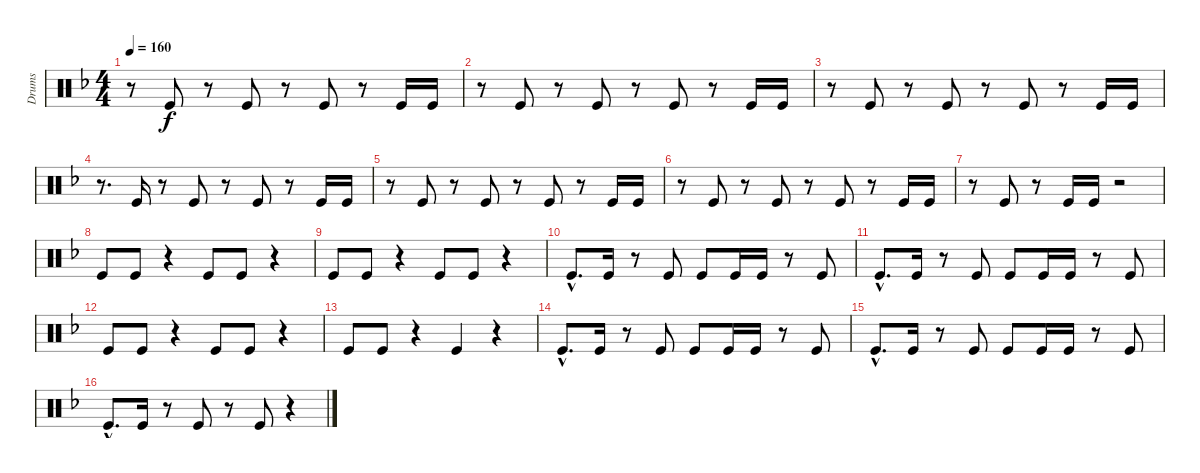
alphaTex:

\track ("Drums" "Drums") {instrument percussion}
\staff {score}
\articulation defaults
\ts (4 4)
\tempo 160
\clef neutral
\ks f
r.8{dy f} "Kick (hit)".8 r.8 "Kick (hit)".8 r.8 "Kick (hit)".8 r.8 "Kick (hit)".16 "Kick (hit)".16 |
r.8 "Kick (hit)".8 r.8 "Kick (hit)".8 r.8 "Kick (hit)".8 r.8 "Kick (hit)".16 "Kick (hit)".16 |
r.8 "Kick (hit)".8 r.8 "Kick (hit)".8 r.8 "Kick (hit)".8 r.8 "Kick (hit)".16 "Kick (hit)".16 |
r.8{d} "Kick (hit)".16 r.8 "Kick (hit)".8 r.8 "Kick (hit)".8 r.8 "Kick (hit)".16 "Kick (hit)".16 |
r.8 "Kick (hit)".8 r.8 "Kick (hit)".8 r.8 "Kick (hit)".8 r.8 "Kick (hit)".16 "Kick (hit)".16 |
r.8 "Kick (hit)".8 r.8 "Kick (hit)".8 r.8 "Kick (hit)".8 r.8 "Kick (hit)".16 "Kick (hit)".16 |
r.8 "Kick (hit)".8 r.8 "Kick (hit)".16 "Kick (hit)".16 r.2 |
"Kick (hit)".8 "Kick (hit)".8 r.4 "Kick (hit)".8 "Kick (hit)".8 r.4 |
"Kick (hit)".8 "Kick (hit)".8 r.4 "Kick (hit)".8 "Kick (hit)".8 r.4 |
"Kick (hit)"{hac}.8{d} "Kick (hit)".16 r.8 "Kick (hit)".8 "Kick (hit)".8 "Kick (hit)".16 "Kick (hit)".16 r.8 "Kick (hit)".8 |
"Kick (hit)"{hac}.8{d} "Kick (hit)".16 r.8 "Kick (hit)".8 "Kick (hit)".8 "Kick (hit)".16 "Kick (hit)".16 r.8 "Kick (hit)".8 |
"Kick (hit)".8 "Kick (hit)".8 r.4 "Kick (hit)".8 "Kick (hit)".8 r.4 |
"Kick (hit)".8 "Kick (hit)".8 r.4 "Kick (hit)".4 r.4 |
"Kick (hit)"{hac}.8{d} "Kick (hit)".16 r.8 "Kick (hit)".8 "Kick (hit)".8 "Kick (hit)".16 "Kick (hit)".16 r.8 "Kick (hit)".8 |
"Kick (hit)"{hac}.8{d} "Kick (hit)".16 r.8 "Kick (hit)".8 "Kick (hit)".8 "Kick (hit)".16 "Kick (hit)".16 r.8 "Kick (hit)".8 |
"Kick (hit)"{hac}.8{d} "Kick (hit)".16 r.8 "Kick (hit)".8 r.8 "Kick (hit)".8 r.4
